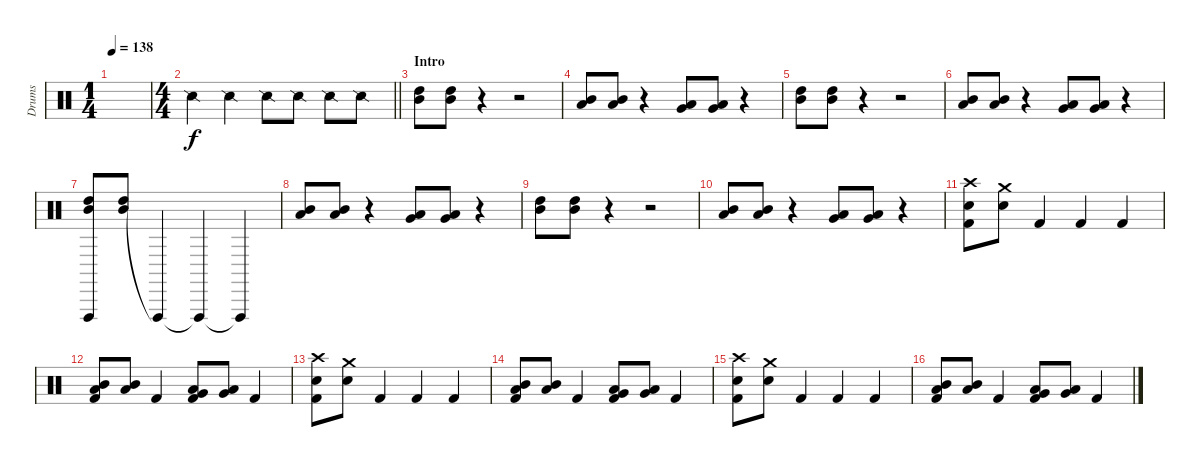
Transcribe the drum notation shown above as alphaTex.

\track ("Drums" "Drums") {instrument percussion}
\staff {score}
\articulation defaults
\ts (1 4)
\tempo 138
\clef neutral
\ks c
|
\ts (4 4)
\barLineRight lightlight "Snare (side stick) 2".4 "Snare (side stick) 2".4 "Snare (side stick) 2".8 "Snare (side stick) 2".8 "Snare (side stick) 2".8 "Snare (side stick) 2".8
|
\section ("" "Intro")
("High Tom (hit)" "Mid Tom (hit)").8 ("High Tom (hit)" "Mid Tom (hit)").8 r.4 r.2 |
("Mid Tom (hit)" "Low Tom (hit)").8 ("Mid Tom (hit)" "Low Tom (hit)").8 r.4 ("Low Tom (hit)" "Very Low Tom (hit)").8 ("Low Tom (hit)" "Very Low Tom (hit)").8 r.4 |
("High Tom (hit)" "Mid Tom (hit)").8 ("High Tom (hit)" "Mid Tom (hit)").8 r.4 r.2 |
("Mid Tom (hit)" "Low Tom (hit)").8 ("Mid Tom (hit)" "Low Tom (hit)").8 r.4 ("Low Tom (hit)" "Very Low Tom (hit)").8 ("Low Tom (hit)" "Very Low Tom (hit)").8 r.4 |
("Vibraslap (hit)" "High Tom (hit)" "Mid Tom (hit)").8 ("High Tom (hit)" "Mid Tom (hit)").8 "Vibraslap (hit)"{t}.4 "Vibraslap (hit)"{t}.4 "Vibraslap (hit)"{t}.4 |
("Mid Tom (hit)" "Low Tom (hit)").8 ("Mid Tom (hit)" "Low Tom (hit)").8 r.4 ("Low Tom (hit)" "Very Low Tom (hit)").8 ("Low Tom (hit)" "Very Low Tom (hit)").8 r.4 |
("High Tom (hit)" "Mid Tom (hit)").8 ("High Tom (hit)" "Mid Tom (hit)").8 r.4 r.2 |
("Mid Tom (hit)" "Low Tom (hit)").8 ("Mid Tom (hit)" "Low Tom (hit)").8 r.4 ("Low Tom (hit)" "Very Low Tom (hit)").8 ("Low Tom (hit)" "Very Low Tom (hit)").8 r.4 |
("Crash high (hit)" "Snare (hit) 2" "Kick (hit) 2").8 ("Crash medium (hit)" "Snare (hit) 2").8 "Kick (hit) 2".4 "Kick (hit) 2".4 "Kick (hit) 2".4 |
("Mid Tom (hit)" "Low Tom (hit)" "Kick (hit) 2").8 ("Mid Tom (hit)" "Low Tom (hit)").8 "Kick (hit) 2".4 ("Low Tom (hit)" "Very Low Tom (hit)" "Kick (hit) 2").8 ("Low Tom (hit)" "Very Low Tom (hit)").8 "Kick (hit) 2".4 |
("Crash high (hit)" "Snare (hit) 2" "Kick (hit) 2").8 ("Crash medium (hit)" "Snare (hit) 2").8 "Kick (hit) 2".4 "Kick (hit) 2".4 "Kick (hit) 2".4 |
("Mid Tom (hit)" "Low Tom (hit)" "Kick (hit) 2").8 ("Mid Tom (hit)" "Low Tom (hit)").8 "Kick (hit) 2".4 ("Low Tom (hit)" "Very Low Tom (hit)" "Kick (hit) 2").8 ("Low Tom (hit)" "Very Low Tom (hit)").8 "Kick (hit) 2".4 |
("Crash high (hit)" "Snare (hit) 2" "Kick (hit) 2").8 ("Crash medium (hit)" "Snare (hit) 2").8 "Kick (hit) 2".4 "Kick (hit) 2".4 "Kick (hit) 2".4 |
("Mid Tom (hit)" "Low Tom (hit)" "Kick (hit) 2").8 ("Mid Tom (hit)" "Low Tom (hit)").8 "Kick (hit) 2".4 ("Low Tom (hit)" "Very Low Tom (hit)" "Kick (hit) 2").8 ("Low Tom (hit)" "Very Low Tom (hit)").8 "Kick (hit) 2".4
